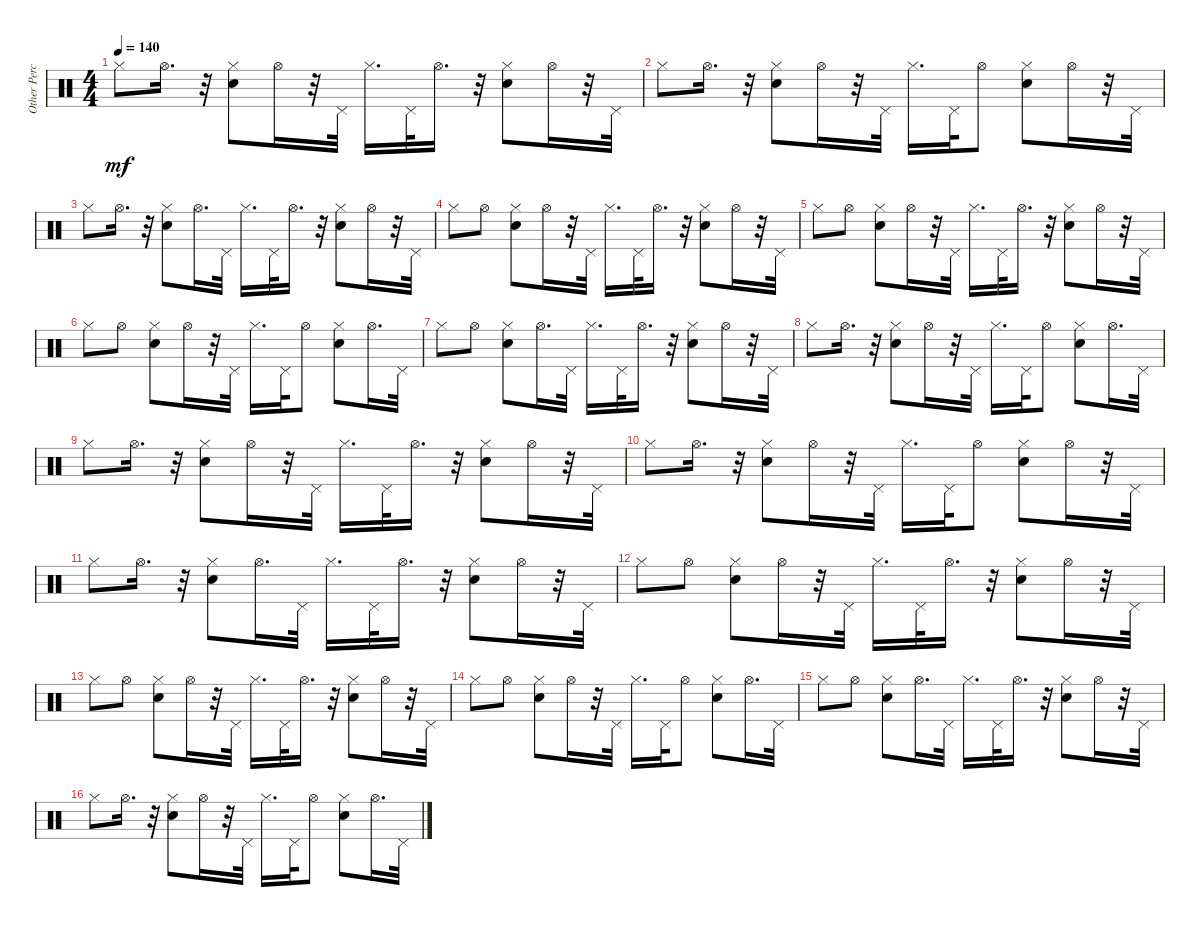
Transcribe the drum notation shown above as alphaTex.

\track ("Other Percussion" "Other Perc") {instrument percussion}
\staff {score}
\articulation defaults
\ts (4 4)
\tempo 140
\clef neutral
\ks c "Hi-Hat (closed)".8{dy mf} "Hi-Hat (open)".16{d}
r.32 ("Hand Clap (hit)" "Hi-Hat (closed)").8 "Hi-Hat (open)".16 r.32 "Pedal Hi-Hat (hit)".32 "Hi-Hat (closed)".16{d} "Pedal Hi-Hat (hit)".32 "Hi-Hat (open)".16{d} r.32 ("Hand Clap (hit)" "Hi-Hat (closed)").8 "Hi-Hat (open)".16 r.32 "Pedal Hi-Hat (hit)".32 |
"Hi-Hat (closed)".8 "Hi-Hat (open)".16{d} r.32 ("Hand Clap (hit)" "Hi-Hat (closed)").8 "Hi-Hat (open)".16 r.32 "Pedal Hi-Hat (hit)".32 "Hi-Hat (closed)".16{d} "Pedal Hi-Hat (hit)".32 "Hi-Hat (open)".8 ("Hand Clap (hit)" "Hi-Hat (closed)").8 "Hi-Hat (open)".16 r.32 "Pedal Hi-Hat (hit)".32 |
"Hi-Hat (closed)".8 "Hi-Hat (open)".16{d} r.32 ("Hand Clap (hit)" "Hi-Hat (closed)").8 "Hi-Hat (open)".16{d} "Pedal Hi-Hat (hit)".32 "Hi-Hat (closed)".16{d} "Pedal Hi-Hat (hit)".32 "Hi-Hat (open)".16{d} r.32 ("Hand Clap (hit)" "Hi-Hat (closed)").8 "Hi-Hat (open)".16 r.32 "Pedal Hi-Hat (hit)".32 |
"Hi-Hat (closed)".8 "Hi-Hat (open)".8 ("Hand Clap (hit)" "Hi-Hat (closed)").8 "Hi-Hat (open)".16 r.32 "Pedal Hi-Hat (hit)".32 "Hi-Hat (closed)".16{d} "Pedal Hi-Hat (hit)".32 "Hi-Hat (open)".16{d} r.32 ("Hand Clap (hit)" "Hi-Hat (closed)").8 "Hi-Hat (open)".16 r.32 "Pedal Hi-Hat (hit)".32 |
"Hi-Hat (closed)".8 "Hi-Hat (open)".8 ("Hand Clap (hit)" "Hi-Hat (closed)").8 "Hi-Hat (open)".16 r.32 "Pedal Hi-Hat (hit)".32 "Hi-Hat (closed)".16{d} "Pedal Hi-Hat (hit)".32 "Hi-Hat (open)".16{d} r.32 ("Hand Clap (hit)" "Hi-Hat (closed)").8 "Hi-Hat (open)".16 r.32 "Pedal Hi-Hat (hit)".32 |
"Hi-Hat (closed)".8 "Hi-Hat (open)".8 ("Hand Clap (hit)" "Hi-Hat (closed)").8 "Hi-Hat (open)".16 r.32 "Pedal Hi-Hat (hit)".32 "Hi-Hat (closed)".16{d} "Pedal Hi-Hat (hit)".32 "Hi-Hat (open)".8 ("Hand Clap (hit)" "Hi-Hat (closed)").8 "Hi-Hat (open)".16{d} "Pedal Hi-Hat (hit)".32 |
"Hi-Hat (closed)".8 "Hi-Hat (open)".8 ("Hand Clap (hit)" "Hi-Hat (closed)").8 "Hi-Hat (open)".16{d} "Pedal Hi-Hat (hit)".32 "Hi-Hat (closed)".16{d} "Pedal Hi-Hat (hit)".32 "Hi-Hat (open)".16{d} r.32 ("Hand Clap (hit)" "Hi-Hat (closed)").8 "Hi-Hat (open)".16 r.32 "Pedal Hi-Hat (hit)".32 |
"Hi-Hat (closed)".8 "Hi-Hat (open)".16{d} r.32 ("Hand Clap (hit)" "Hi-Hat (closed)").8 "Hi-Hat (open)".16 r.32 "Pedal Hi-Hat (hit)".32 "Hi-Hat (closed)".16{d} "Pedal Hi-Hat (hit)".32 "Hi-Hat (open)".8 ("Hand Clap (hit)" "Hi-Hat (closed)").8 "Hi-Hat (open)".16{d} "Pedal Hi-Hat (hit)".32 |
"Hi-Hat (closed)".8 "Hi-Hat (open)".16{d} r.32 ("Hand Clap (hit)" "Hi-Hat (closed)").8 "Hi-Hat (open)".16 r.32 "Pedal Hi-Hat (hit)".32 "Hi-Hat (closed)".16{d} "Pedal Hi-Hat (hit)".32 "Hi-Hat (open)".16{d} r.32 ("Hand Clap (hit)" "Hi-Hat (closed)").8 "Hi-Hat (open)".16 r.32 "Pedal Hi-Hat (hit)".32 |
"Hi-Hat (closed)".8 "Hi-Hat (open)".16{d} r.32 ("Hand Clap (hit)" "Hi-Hat (closed)").8 "Hi-Hat (open)".16 r.32 "Pedal Hi-Hat (hit)".32 "Hi-Hat (closed)".16{d} "Pedal Hi-Hat (hit)".32 "Hi-Hat (open)".8 ("Hand Clap (hit)" "Hi-Hat (closed)").8 "Hi-Hat (open)".16 r.32 "Pedal Hi-Hat (hit)".32 |
"Hi-Hat (closed)".8 "Hi-Hat (open)".16{d} r.32 ("Hand Clap (hit)" "Hi-Hat (closed)").8 "Hi-Hat (open)".16{d} "Pedal Hi-Hat (hit)".32 "Hi-Hat (closed)".16{d} "Pedal Hi-Hat (hit)".32 "Hi-Hat (open)".16{d} r.32 ("Hand Clap (hit)" "Hi-Hat (closed)").8 "Hi-Hat (open)".16 r.32 "Pedal Hi-Hat (hit)".32 |
"Hi-Hat (closed)".8 "Hi-Hat (open)".8 ("Hand Clap (hit)" "Hi-Hat (closed)").8 "Hi-Hat (open)".16 r.32 "Pedal Hi-Hat (hit)".32 "Hi-Hat (closed)".16{d} "Pedal Hi-Hat (hit)".32 "Hi-Hat (open)".16{d} r.32 ("Hand Clap (hit)" "Hi-Hat (closed)").8 "Hi-Hat (open)".16 r.32 "Pedal Hi-Hat (hit)".32 |
"Hi-Hat (closed)".8 "Hi-Hat (open)".8 ("Hand Clap (hit)" "Hi-Hat (closed)").8 "Hi-Hat (open)".16 r.32 "Pedal Hi-Hat (hit)".32 "Hi-Hat (closed)".16{d} "Pedal Hi-Hat (hit)".32 "Hi-Hat (open)".16{d} r.32 ("Hand Clap (hit)" "Hi-Hat (closed)").8 "Hi-Hat (open)".16 r.32 "Pedal Hi-Hat (hit)".32 |
"Hi-Hat (closed)".8 "Hi-Hat (open)".8 ("Hand Clap (hit)" "Hi-Hat (closed)").8 "Hi-Hat (open)".16 r.32 "Pedal Hi-Hat (hit)".32 "Hi-Hat (closed)".16{d} "Pedal Hi-Hat (hit)".32 "Hi-Hat (open)".8 ("Hand Clap (hit)" "Hi-Hat (closed)").8 "Hi-Hat (open)".16{d} "Pedal Hi-Hat (hit)".32 |
"Hi-Hat (closed)".8 "Hi-Hat (open)".8 ("Hand Clap (hit)" "Hi-Hat (closed)").8 "Hi-Hat (open)".16{d} "Pedal Hi-Hat (hit)".32 "Hi-Hat (closed)".16{d} "Pedal Hi-Hat (hit)".32 "Hi-Hat (open)".16{d} r.32 ("Hand Clap (hit)" "Hi-Hat (closed)").8 "Hi-Hat (open)".16 r.32 "Pedal Hi-Hat (hit)".32 |
"Hi-Hat (closed)".8 "Hi-Hat (open)".16{d} r.32 ("Hand Clap (hit)" "Hi-Hat (closed)").8 "Hi-Hat (open)".16 r.32 "Pedal Hi-Hat (hit)".32 "Hi-Hat (closed)".16{d} "Pedal Hi-Hat (hit)".32 "Hi-Hat (open)".8 ("Hand Clap (hit)" "Hi-Hat (closed)").8 "Hi-Hat (open)".16{d} "Pedal Hi-Hat (hit)".32
